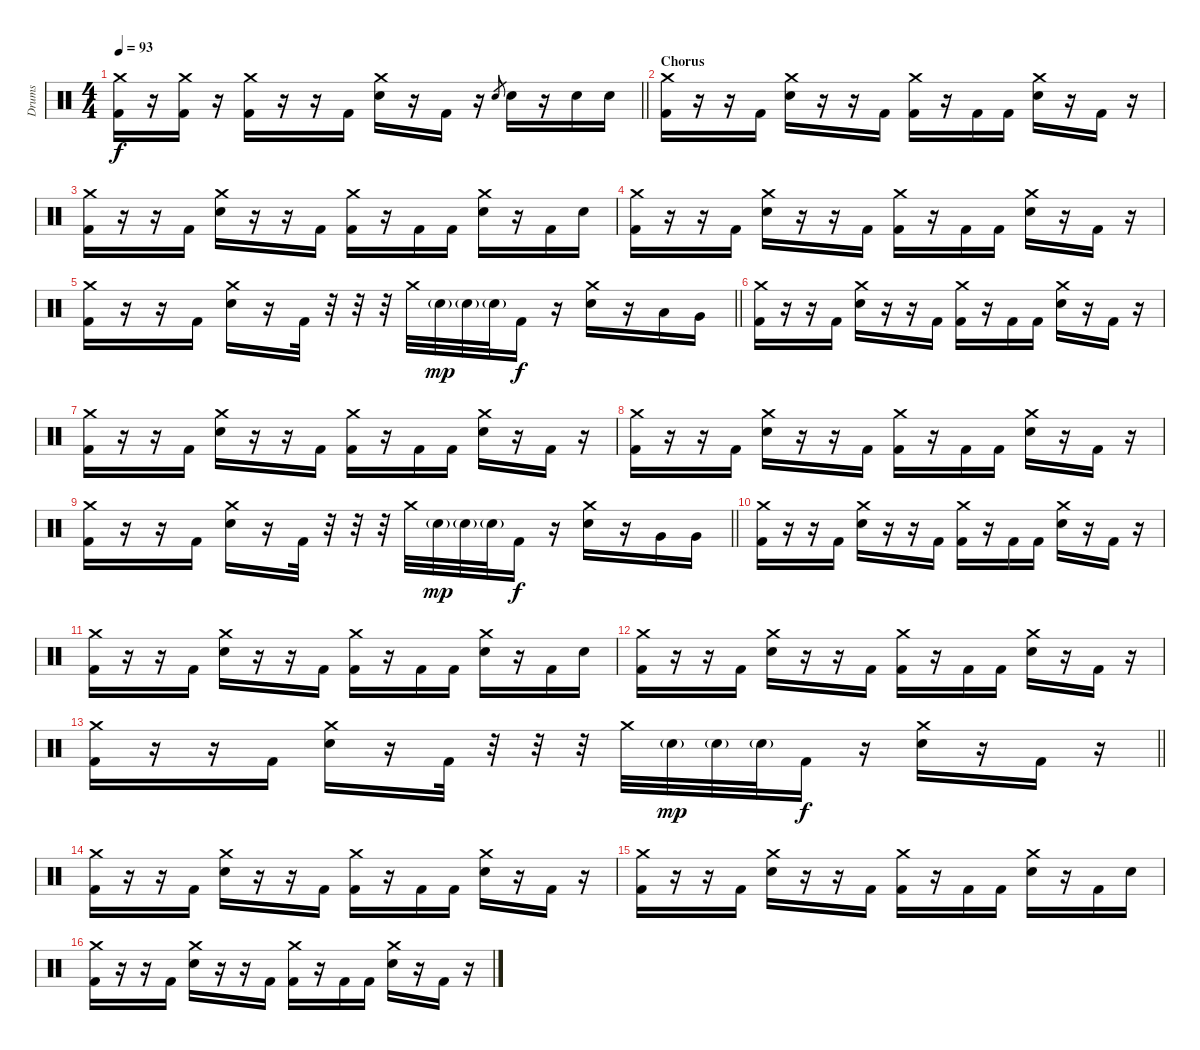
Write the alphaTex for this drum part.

\track ("Drums" "Drums") {instrument percussion}
\staff {score}
\articulation defaults
\ts (4 4)
\tempo 93
\clef neutral
\barLineRight lightlight
\ks c
("Crash medium (hit)" "Kick (hit) 2").16{dy f} r.16 ("Crash medium (hit)" "Kick (hit) 2").16 r.16 ("Crash medium (hit)" "Kick (hit) 2").16 r.16 r.16 "Kick (hit) 2".16 ("Crash medium (hit)" "Electric Snare (hit)").16 r.16 "Kick (hit) 2".16 r.16 "Electric Snare (hit)".8{gr} "Electric Snare (hit)".16 r.16 "Electric Snare (hit)".16 "Electric Snare (hit)".16 |
\section ("" "Chorus")
("Crash medium (hit)" "Kick (hit) 2").16 r.16 r.16 "Kick (hit) 2".16 ("Crash medium (hit)" "Electric Snare (hit)").16 r.16 r.16 "Kick (hit) 2".16 ("Crash medium (hit)" "Kick (hit) 2").16 r.16 "Kick (hit) 2".16 "Kick (hit) 2".16 ("Crash medium (hit)" "Electric Snare (hit)").16 r.16 "Kick (hit) 2".16 r.16 |
("Crash medium (hit)" "Kick (hit) 2").16 r.16 r.16 "Kick (hit) 2".16 ("Crash medium (hit)" "Electric Snare (hit)").16 r.16 r.16 "Kick (hit) 2".16 ("Crash medium (hit)" "Kick (hit) 2").16 r.16 "Kick (hit) 2".16 "Kick (hit) 2".16 ("Crash medium (hit)" "Electric Snare (hit)").16 r.16 "Kick (hit) 2".16 "Electric Snare (hit)".16 |
("Crash medium (hit)" "Kick (hit) 2").16 r.16 r.16 "Kick (hit) 2".16 ("Crash medium (hit)" "Electric Snare (hit)").16 r.16 r.16 "Kick (hit) 2".16 ("Crash medium (hit)" "Kick (hit) 2").16 r.16 "Kick (hit) 2".16 "Kick (hit) 2".16 ("Crash medium (hit)" "Electric Snare (hit)").16 r.16 "Kick (hit) 2".16 r.16 |
\barLineRight lightlight
("Crash medium (hit)" "Kick (hit) 2").16 r.16 r.16 "Kick (hit) 2".16 ("Crash medium (hit)" "Electric Snare (hit)").16 r.16 "Kick (hit) 2".32 r.32 r.32 r.32 "Crash medium (hit)".32 "Electric Snare (hit)"{g}.32{dy mp} "Electric Snare (hit)"{g}.32 "Electric Snare (hit)"{g}.32 "Kick (hit) 2".16{dy f} r.16 ("Crash medium (hit)" "Electric Snare (hit)").16 r.16 "Low Tom (hit)".16 "Very Low Tom (hit)".16 |
("Crash medium (hit)" "Kick (hit) 2").16 r.16 r.16 "Kick (hit) 2".16 ("Crash medium (hit)" "Electric Snare (hit)").16 r.16 r.16 "Kick (hit) 2".16 ("Crash medium (hit)" "Kick (hit) 2").16 r.16 "Kick (hit) 2".16 "Kick (hit) 2".16 ("Crash medium (hit)" "Electric Snare (hit)").16 r.16 "Kick (hit) 2".16 r.16 |
("Crash medium (hit)" "Kick (hit) 2").16 r.16 r.16 "Kick (hit) 2".16 ("Crash medium (hit)" "Electric Snare (hit)").16 r.16 r.16 "Kick (hit) 2".16 ("Crash medium (hit)" "Kick (hit) 2").16 r.16 "Kick (hit) 2".16 "Kick (hit) 2".16 ("Crash medium (hit)" "Electric Snare (hit)").16 r.16 "Kick (hit) 2".16 r.16 |
("Crash medium (hit)" "Kick (hit) 2").16 r.16 r.16 "Kick (hit) 2".16 ("Crash medium (hit)" "Electric Snare (hit)").16 r.16 r.16 "Kick (hit) 2".16 ("Crash medium (hit)" "Kick (hit) 2").16 r.16 "Kick (hit) 2".16 "Kick (hit) 2".16 ("Crash medium (hit)" "Electric Snare (hit)").16 r.16 "Kick (hit) 2".16 r.16 |
\barLineRight lightlight
("Crash medium (hit)" "Kick (hit) 2").16 r.16 r.16 "Kick (hit) 2".16 ("Crash medium (hit)" "Electric Snare (hit)").16 r.16 "Kick (hit) 2".32 r.32 r.32 r.32 "Crash medium (hit)".32 "Electric Snare (hit)"{g}.32{dy mp} "Electric Snare (hit)"{g}.32 "Electric Snare (hit)"{g}.32 "Kick (hit) 2".16{dy f} r.16 ("Crash medium (hit)" "Electric Snare (hit)").16 r.16 "Very Low Tom (hit)".16 "Very Low Tom (hit)".16 |
("Crash medium (hit)" "Kick (hit) 2").16 r.16 r.16 "Kick (hit) 2".16 ("Crash medium (hit)" "Electric Snare (hit)").16 r.16 r.16 "Kick (hit) 2".16 ("Crash medium (hit)" "Kick (hit) 2").16 r.16 "Kick (hit) 2".16 "Kick (hit) 2".16 ("Crash medium (hit)" "Electric Snare (hit)").16 r.16 "Kick (hit) 2".16 r.16 |
("Crash medium (hit)" "Kick (hit) 2").16 r.16 r.16 "Kick (hit) 2".16 ("Crash medium (hit)" "Electric Snare (hit)").16 r.16 r.16 "Kick (hit) 2".16 ("Crash medium (hit)" "Kick (hit) 2").16 r.16 "Kick (hit) 2".16 "Kick (hit) 2".16 ("Crash medium (hit)" "Electric Snare (hit)").16 r.16 "Kick (hit) 2".16 "Electric Snare (hit)".16 |
("Crash medium (hit)" "Kick (hit) 2").16 r.16 r.16 "Kick (hit) 2".16 ("Crash medium (hit)" "Electric Snare (hit)").16 r.16 r.16 "Kick (hit) 2".16 ("Crash medium (hit)" "Kick (hit) 2").16 r.16 "Kick (hit) 2".16 "Kick (hit) 2".16 ("Crash medium (hit)" "Electric Snare (hit)").16 r.16 "Kick (hit) 2".16 r.16 |
\barLineRight lightlight
("Crash medium (hit)" "Kick (hit) 2").16 r.16 r.16 "Kick (hit) 2".16 ("Crash medium (hit)" "Electric Snare (hit)").16 r.16 "Kick (hit) 2".32 r.32 r.32 r.32 "Crash medium (hit)".32 "Electric Snare (hit)"{g}.32{dy mp} "Electric Snare (hit)"{g}.32 "Electric Snare (hit)"{g}.32 "Kick (hit) 2".16{dy f} r.16 ("Crash medium (hit)" "Electric Snare (hit)").16 r.16 "Kick (hit) 2".16 r.16 |
("Crash medium (hit)" "Kick (hit) 2").16 r.16 r.16 "Kick (hit) 2".16 ("Crash medium (hit)" "Electric Snare (hit)").16 r.16 r.16 "Kick (hit) 2".16 ("Crash medium (hit)" "Kick (hit) 2").16 r.16 "Kick (hit) 2".16 "Kick (hit) 2".16 ("Crash medium (hit)" "Electric Snare (hit)").16 r.16 "Kick (hit) 2".16 r.16 |
("Crash medium (hit)" "Kick (hit) 2").16 r.16 r.16 "Kick (hit) 2".16 ("Crash medium (hit)" "Electric Snare (hit)").16 r.16 r.16 "Kick (hit) 2".16 ("Crash medium (hit)" "Kick (hit) 2").16 r.16 "Kick (hit) 2".16 "Kick (hit) 2".16 ("Crash medium (hit)" "Electric Snare (hit)").16 r.16 "Kick (hit) 2".16 "Electric Snare (hit)".16 |
("Crash medium (hit)" "Kick (hit) 2").16 r.16 r.16 "Kick (hit) 2".16 ("Crash medium (hit)" "Electric Snare (hit)").16 r.16 r.16 "Kick (hit) 2".16 ("Crash medium (hit)" "Kick (hit) 2").16 r.16 "Kick (hit) 2".16 "Kick (hit) 2".16 ("Crash medium (hit)" "Electric Snare (hit)").16 r.16 "Kick (hit) 2".16 r.16
